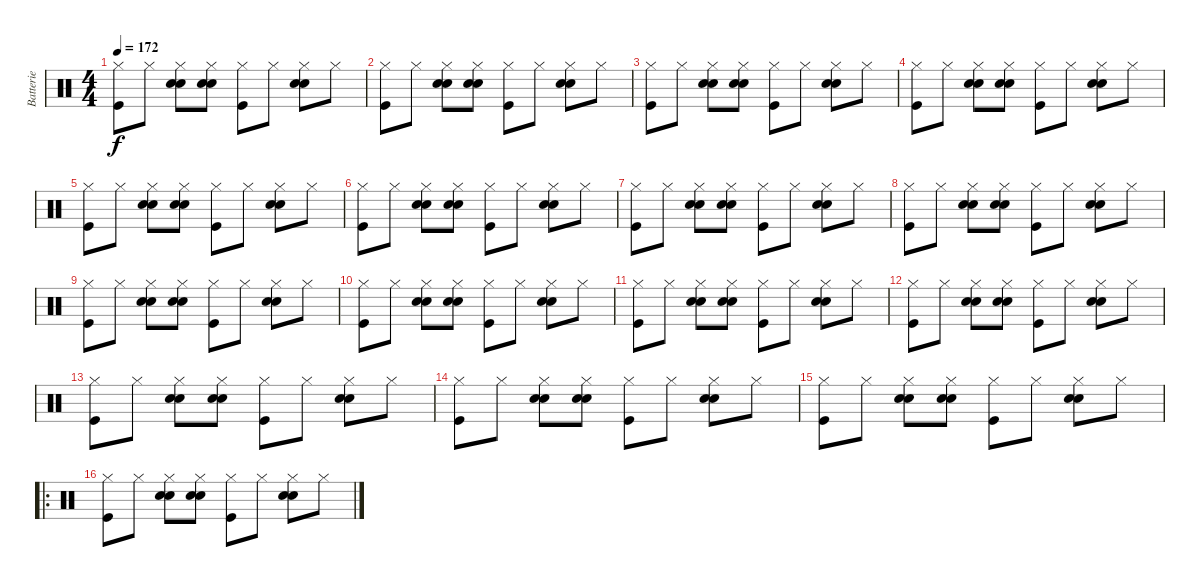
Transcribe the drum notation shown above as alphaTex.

\track ("Batterie" "Batterie") {instrument percussion}
\staff {score}
\articulation defaults
\ts (4 4)
\tempo 172
\clef neutral
\ks c
("Hi-Hat (closed)" "Kick (hit)").8{dy f} "Hi-Hat (closed)".8 ("Electric Snare (hit)" "Hi-Hat (closed)" "Snare (hit) 2").8 ("Electric Snare (hit)" "Hi-Hat (closed)" "Snare (hit) 2").8 ("Hi-Hat (closed)" "Kick (hit)").8 "Hi-Hat (closed)".8 ("Electric Snare (hit)" "Hi-Hat (closed)" "Snare (hit) 2").8 "Hi-Hat (closed)".8 |
("Hi-Hat (closed)" "Kick (hit)").8 "Hi-Hat (closed)".8 ("Electric Snare (hit)" "Hi-Hat (closed)" "Snare (hit) 2").8 ("Electric Snare (hit)" "Hi-Hat (closed)" "Snare (hit) 2").8 ("Hi-Hat (closed)" "Kick (hit)").8 "Hi-Hat (closed)".8 ("Electric Snare (hit)" "Hi-Hat (closed)" "Snare (hit) 2").8 "Hi-Hat (closed)".8 |
("Hi-Hat (closed)" "Kick (hit)").8 "Hi-Hat (closed)".8 ("Electric Snare (hit)" "Hi-Hat (closed)" "Snare (hit) 2").8 ("Electric Snare (hit)" "Hi-Hat (closed)" "Snare (hit) 2").8 ("Hi-Hat (closed)" "Kick (hit)").8 "Hi-Hat (closed)".8 ("Electric Snare (hit)" "Hi-Hat (closed)" "Snare (hit) 2").8 "Hi-Hat (closed)".8 |
("Hi-Hat (closed)" "Kick (hit)").8 "Hi-Hat (closed)".8 ("Electric Snare (hit)" "Hi-Hat (closed)" "Snare (hit) 2").8 ("Electric Snare (hit)" "Hi-Hat (closed)" "Snare (hit) 2").8 ("Hi-Hat (closed)" "Kick (hit)").8 "Hi-Hat (closed)".8 ("Electric Snare (hit)" "Hi-Hat (closed)" "Snare (hit) 2").8 "Hi-Hat (closed)".8 |
("Hi-Hat (closed)" "Kick (hit)").8 "Hi-Hat (closed)".8 ("Electric Snare (hit)" "Hi-Hat (closed)" "Snare (hit) 2").8 ("Electric Snare (hit)" "Hi-Hat (closed)" "Snare (hit) 2").8 ("Hi-Hat (closed)" "Kick (hit)").8 "Hi-Hat (closed)".8 ("Electric Snare (hit)" "Hi-Hat (closed)" "Snare (hit) 2").8 "Hi-Hat (closed)".8 |
("Hi-Hat (closed)" "Kick (hit)").8 "Hi-Hat (closed)".8 ("Electric Snare (hit)" "Hi-Hat (closed)" "Snare (hit) 2").8 ("Electric Snare (hit)" "Hi-Hat (closed)" "Snare (hit) 2").8 ("Hi-Hat (closed)" "Kick (hit)").8 "Hi-Hat (closed)".8 ("Electric Snare (hit)" "Hi-Hat (closed)" "Snare (hit) 2").8 "Hi-Hat (closed)".8 |
("Hi-Hat (closed)" "Kick (hit)").8 "Hi-Hat (closed)".8 ("Electric Snare (hit)" "Hi-Hat (closed)" "Snare (hit) 2").8 ("Electric Snare (hit)" "Hi-Hat (closed)" "Snare (hit) 2").8 ("Hi-Hat (closed)" "Kick (hit)").8 "Hi-Hat (closed)".8 ("Electric Snare (hit)" "Hi-Hat (closed)" "Snare (hit) 2").8 "Hi-Hat (closed)".8 |
("Hi-Hat (closed)" "Kick (hit)").8 "Hi-Hat (closed)".8 ("Electric Snare (hit)" "Hi-Hat (closed)" "Snare (hit) 2").8 ("Electric Snare (hit)" "Hi-Hat (closed)" "Snare (hit) 2").8 ("Hi-Hat (closed)" "Kick (hit)").8 "Hi-Hat (closed)".8 ("Electric Snare (hit)" "Hi-Hat (closed)" "Snare (hit) 2").8 "Hi-Hat (closed)".8 |
("Hi-Hat (closed)" "Kick (hit)").8 "Hi-Hat (closed)".8 ("Electric Snare (hit)" "Hi-Hat (closed)" "Snare (hit) 2").8 ("Electric Snare (hit)" "Hi-Hat (closed)" "Snare (hit) 2").8 ("Hi-Hat (closed)" "Kick (hit)").8 "Hi-Hat (closed)".8 ("Electric Snare (hit)" "Hi-Hat (closed)" "Snare (hit) 2").8 "Hi-Hat (closed)".8 |
("Hi-Hat (closed)" "Kick (hit)").8 "Hi-Hat (closed)".8 ("Electric Snare (hit)" "Hi-Hat (closed)" "Snare (hit) 2").8 ("Electric Snare (hit)" "Hi-Hat (closed)" "Snare (hit) 2").8 ("Hi-Hat (closed)" "Kick (hit)").8 "Hi-Hat (closed)".8 ("Electric Snare (hit)" "Hi-Hat (closed)" "Snare (hit) 2").8 "Hi-Hat (closed)".8 |
("Hi-Hat (closed)" "Kick (hit)").8 "Hi-Hat (closed)".8 ("Electric Snare (hit)" "Hi-Hat (closed)" "Snare (hit) 2").8 ("Electric Snare (hit)" "Hi-Hat (closed)" "Snare (hit) 2").8 ("Hi-Hat (closed)" "Kick (hit)").8 "Hi-Hat (closed)".8 ("Electric Snare (hit)" "Hi-Hat (closed)" "Snare (hit) 2").8 "Hi-Hat (closed)".8 |
("Hi-Hat (closed)" "Kick (hit)").8 "Hi-Hat (closed)".8 ("Electric Snare (hit)" "Hi-Hat (closed)" "Snare (hit) 2").8 ("Electric Snare (hit)" "Hi-Hat (closed)" "Snare (hit) 2").8 ("Hi-Hat (closed)" "Kick (hit)").8 "Hi-Hat (closed)".8 ("Electric Snare (hit)" "Hi-Hat (closed)" "Snare (hit) 2").8 "Hi-Hat (closed)".8 |
("Hi-Hat (closed)" "Kick (hit)").8 "Hi-Hat (closed)".8 ("Electric Snare (hit)" "Hi-Hat (closed)" "Snare (hit) 2").8 ("Electric Snare (hit)" "Hi-Hat (closed)" "Snare (hit) 2").8 ("Hi-Hat (closed)" "Kick (hit)").8 "Hi-Hat (closed)".8 ("Electric Snare (hit)" "Hi-Hat (closed)" "Snare (hit) 2").8 "Hi-Hat (closed)".8 |
("Hi-Hat (closed)" "Kick (hit)").8 "Hi-Hat (closed)".8 ("Electric Snare (hit)" "Hi-Hat (closed)" "Snare (hit) 2").8 ("Electric Snare (hit)" "Hi-Hat (closed)" "Snare (hit) 2").8 ("Hi-Hat (closed)" "Kick (hit)").8 "Hi-Hat (closed)".8 ("Electric Snare (hit)" "Hi-Hat (closed)" "Snare (hit) 2").8 "Hi-Hat (closed)".8 |
("Hi-Hat (closed)" "Kick (hit)").8 "Hi-Hat (closed)".8 ("Electric Snare (hit)" "Hi-Hat (closed)" "Snare (hit) 2").8 ("Electric Snare (hit)" "Hi-Hat (closed)" "Snare (hit) 2").8 ("Hi-Hat (closed)" "Kick (hit)").8 "Hi-Hat (closed)".8 ("Electric Snare (hit)" "Hi-Hat (closed)" "Snare (hit) 2").8 "Hi-Hat (closed)".8 |
\ro
("Hi-Hat (closed)" "Kick (hit)").8 "Hi-Hat (closed)".8 ("Electric Snare (hit)" "Hi-Hat (closed)" "Snare (hit) 2").8 ("Electric Snare (hit)" "Hi-Hat (closed)" "Snare (hit) 2").8 ("Hi-Hat (closed)" "Kick (hit)").8 "Hi-Hat (closed)".8 ("Electric Snare (hit)" "Hi-Hat (closed)" "Snare (hit) 2").8 "Hi-Hat (closed)".8
